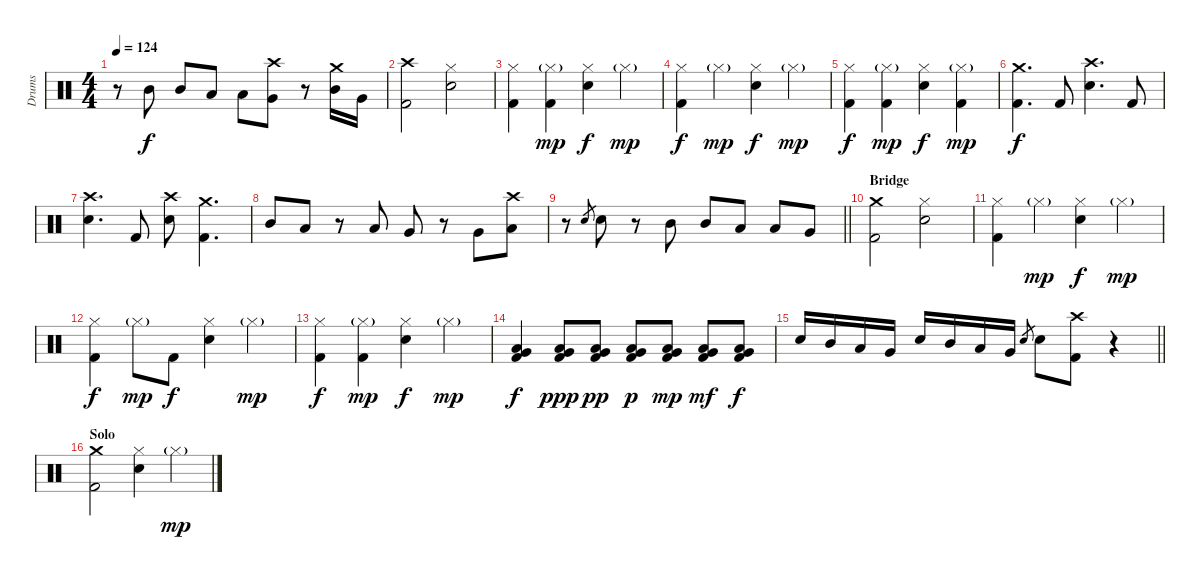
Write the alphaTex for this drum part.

\track ("Drums" "Drums") {instrument percussion}
\staff {score}
\articulation defaults
\ts (4 4)
\tempo 124
\clef neutral
\ks c
r.8{dy f} "Mid Tom (hit)".8 "Mid Tom (hit)".8 "Low Tom (hit)".8 "Low Tom (hit)".8 ("Crash high (hit)" "Very Low Tom (hit)").8 r.8 ("Crash medium (hit)" "Mid Tom (hit)").16 "Very Low Tom (hit)".16 |
("Crash high (hit)" "Kick (hit) 2").2 ("Hi-Hat (closed)" "Snare (hit) 2").2 |
("Hi-Hat (closed)" "Kick (hit) 2").4 ("Hi-Hat (closed)"{g} "Kick (hit) 2").4{dy mp} ("Hi-Hat (closed)" "Snare (hit) 2").4{dy f} "Hi-Hat (closed)"{g}.4{dy mp} |
("Hi-Hat (closed)" "Kick (hit) 2").4{dy f} "Hi-Hat (closed)"{g}.4{dy mp} ("Hi-Hat (closed)" "Snare (hit) 2").4{dy f} "Hi-Hat (closed)"{g}.4{dy mp} |
("Hi-Hat (closed)" "Kick (hit) 2").4{dy f} ("Hi-Hat (closed)"{g} "Kick (hit) 2").4{dy mp} ("Hi-Hat (closed)" "Snare (hit) 2").4{dy f} ("Hi-Hat (closed)"{g} "Kick (hit) 2").4{dy mp} |
("Crash medium (hit)" "Kick (hit) 2").4{d dy f} "Kick (hit) 2".8 ("Crash high (hit)" "Snare (hit) 2").4{d} "Kick (hit) 2".8 |
("Crash high (hit)" "Snare (hit) 2").4{d} "Kick (hit) 2".8 ("Crash high (hit)" "Snare (hit) 2").8 ("Crash medium (hit)" "Kick (hit) 2").4{d} |
"Mid Tom (hit)".8 "Low Tom (hit)".8 r.8 "Low Tom (hit)".8 "Very Low Tom (hit)".8 r.8 "Very Low Tom (hit)".8 ("Crash high (hit)" "Low Floor Tom (hit)").8 |
\barLineRight lightlight
r.8 "Snare (hit) 2".8{gr} "Snare (hit) 2".8 r.8 "Mid Tom (hit)".8 "Mid Tom (hit)".8 "Low Tom (hit)".8 "Low Tom (hit)".8 "Very Low Tom (hit)".8 |
\section ("" "Bridge")
("Crash medium (hit)" "Kick (hit) 2").2 ("Hi-Hat (closed)" "Snare (hit) 2").2 |
("Hi-Hat (closed)" "Kick (hit) 2").4 "Hi-Hat (closed)"{g}.4{dy mp} ("Hi-Hat (closed)" "Snare (hit) 2").4{dy f} "Hi-Hat (closed)"{g}.4{dy mp} |
("Hi-Hat (closed)" "Kick (hit) 2").4{dy f} "Hi-Hat (closed)"{g}.8{dy mp} "Kick (hit) 2".8{dy f} ("Hi-Hat (closed)" "Snare (hit) 2").4 "Hi-Hat (closed)"{g}.4{dy mp} |
("Hi-Hat (closed)" "Kick (hit) 2").4{dy f} ("Hi-Hat (closed)"{g} "Kick (hit) 2").4{dy mp} ("Hi-Hat (closed)" "Snare (hit) 2").4{dy f} "Hi-Hat (closed)"{g}.4{dy mp} |
("Low Tom (hit)" "Very Low Tom (hit)" "Kick (hit) 2").4{dy f} ("Low Tom (hit)" "Very Low Tom (hit)" "Kick (hit) 2").8{dy ppp} ("Low Tom (hit)" "Very Low Tom (hit)" "Kick (hit) 2").8{dy pp} ("Low Tom (hit)" "Very Low Tom (hit)" "Kick (hit) 2").8{dy p} ("Low Tom (hit)" "Very Low Tom (hit)" "Kick (hit) 2").8{dy mp} ("Low Tom (hit)" "Very Low Tom (hit)" "Kick (hit) 2").8{dy mf} ("Low Tom (hit)" "Very Low Tom (hit)" "Kick (hit) 2").8{dy f} |
\barLineRight lightlight "Snare (hit) 2".16 "Mid Tom (hit)".16 "Low Tom (hit)".16 "Very Low Tom (hit)".16 "Snare (hit) 2".16 "Mid Tom (hit)".16 "Low Tom (hit)".16 "Very Low Tom (hit)".16 "Snare (hit) 2".8{gr} "Snare (hit) 2".8
("Crash high (hit)" "Kick (hit) 2").8 r.4 |
\section ("" "Solo")
("Crash medium (hit)" "Kick (hit) 2").2 ("Hi-Hat (closed)" "Snare (hit) 2").4 "Hi-Hat (closed)"{g}.4{dy mp}
